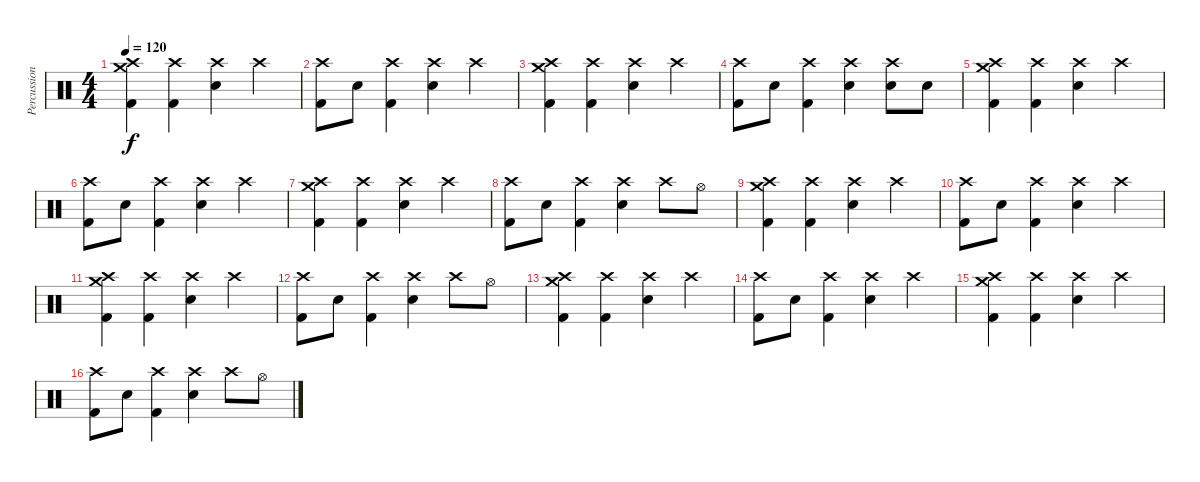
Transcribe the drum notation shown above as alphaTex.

\track ("Percussioni" "Percussion") {instrument percussion}
\staff {score}
\articulation defaults
\ts (4 4)
\tempo 120
\clef neutral
\ks c
("Crash high (hit)" "Kick (hit) 2" "Crash medium (hit)").4{dy f} ("Crash high (hit)" "Kick (hit) 2").4 ("Crash high (hit)" "Snare (hit) 2").4 "Crash high (hit)".4 |
("Crash high (hit)" "Kick (hit) 2").8 "Snare (hit) 2".8 ("Crash high (hit)" "Kick (hit) 2").4 ("Crash high (hit)" "Snare (hit) 2").4 "Crash high (hit)".4 |
("Crash high (hit)" "Kick (hit) 2" "Crash medium (hit)").4 ("Crash high (hit)" "Kick (hit) 2").4 ("Crash high (hit)" "Snare (hit) 2").4 "Crash high (hit)".4 |
("Crash high (hit)" "Kick (hit) 2").8 "Snare (hit) 2".8 ("Crash high (hit)" "Kick (hit) 2").4 ("Crash high (hit)" "Snare (hit) 2").4 ("Crash high (hit)" "Snare (hit) 2").8 "Snare (hit) 2".8 |
("Crash high (hit)" "Kick (hit) 2" "Crash medium (hit)").4 ("Crash high (hit)" "Kick (hit) 2").4 ("Crash high (hit)" "Snare (hit) 2").4 "Crash high (hit)".4 |
("Crash high (hit)" "Kick (hit) 2").8 "Snare (hit) 2".8 ("Crash high (hit)" "Kick (hit) 2").4 ("Crash high (hit)" "Snare (hit) 2").4 "Crash high (hit)".4 |
("Crash high (hit)" "Kick (hit) 2" "Crash medium (hit)").4 ("Crash high (hit)" "Kick (hit) 2").4 ("Crash high (hit)" "Snare (hit) 2").4 "Crash high (hit)".4 |
("Crash high (hit)" "Kick (hit) 2").8 "Snare (hit) 2".8 ("Crash high (hit)" "Kick (hit) 2").4 ("Crash high (hit)" "Snare (hit) 2").4 "Crash high (hit)".8 "Hi-Hat (open)".8 |
("Crash high (hit)" "Kick (hit) 2" "Crash medium (hit)").4 ("Crash high (hit)" "Kick (hit) 2").4 ("Crash high (hit)" "Snare (hit) 2").4 "Crash high (hit)".4 |
("Crash high (hit)" "Kick (hit) 2").8 "Snare (hit) 2".8 ("Crash high (hit)" "Kick (hit) 2").4 ("Crash high (hit)" "Snare (hit) 2").4 "Crash high (hit)".4 |
("Crash high (hit)" "Kick (hit) 2" "Crash medium (hit)").4 ("Crash high (hit)" "Kick (hit) 2").4 ("Crash high (hit)" "Snare (hit) 2").4 "Crash high (hit)".4 |
("Crash high (hit)" "Kick (hit) 2").8 "Snare (hit) 2".8 ("Crash high (hit)" "Kick (hit) 2").4 ("Crash high (hit)" "Snare (hit) 2").4 "Crash high (hit)".8 "Hi-Hat (open)".8 |
("Crash high (hit)" "Kick (hit) 2" "Crash medium (hit)").4 ("Crash high (hit)" "Kick (hit) 2").4 ("Crash high (hit)" "Snare (hit) 2").4 "Crash high (hit)".4 |
("Crash high (hit)" "Kick (hit) 2").8 "Snare (hit) 2".8 ("Crash high (hit)" "Kick (hit) 2").4 ("Crash high (hit)" "Snare (hit) 2").4 "Crash high (hit)".4 |
("Crash high (hit)" "Kick (hit) 2" "Crash medium (hit)").4 ("Crash high (hit)" "Kick (hit) 2").4 ("Crash high (hit)" "Snare (hit) 2").4 "Crash high (hit)".4 |
("Crash high (hit)" "Kick (hit) 2").8 "Snare (hit) 2".8 ("Crash high (hit)" "Kick (hit) 2").4 ("Crash high (hit)" "Snare (hit) 2").4 "Crash high (hit)".8 "Hi-Hat (open)".8
